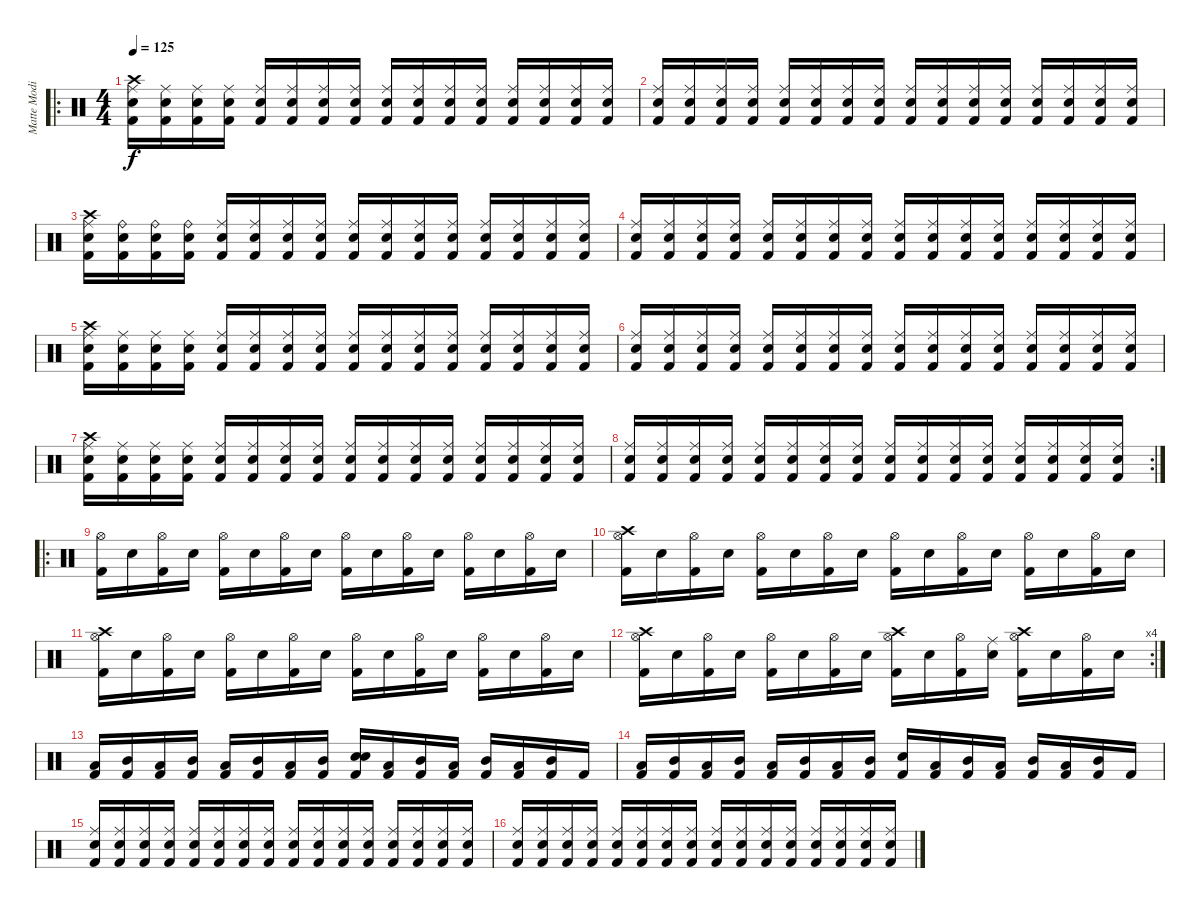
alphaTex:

\track ("Matte Modin" "Matte Modi") {instrument percussion}
\staff {score}
\articulation defaults
\ro
\ts (4 4)
\tempo 125
\clef neutral
\ks c
("Crash high (hit)" "Kick (hit) 2" "Ride (middle)" "Electric Snare (hit)").16{dy f} ("Kick (hit) 2" "Ride (middle)" "Electric Snare (hit)").16 ("Kick (hit) 2" "Ride (middle)" "Electric Snare (hit)").16 ("Kick (hit) 2" "Ride (middle)" "Electric Snare (hit)").16 ("Kick (hit) 2" "Ride (middle)" "Electric Snare (hit)").16 ("Kick (hit) 2" "Ride (middle)" "Electric Snare (hit)").16 ("Kick (hit) 2" "Ride (middle)" "Electric Snare (hit)").16 ("Kick (hit) 2" "Ride (middle)" "Electric Snare (hit)").16 ("Kick (hit) 2" "Ride (middle)" "Electric Snare (hit)").16 ("Kick (hit) 2" "Ride (middle)" "Electric Snare (hit)").16 ("Kick (hit) 2" "Ride (middle)" "Electric Snare (hit)").16 ("Kick (hit) 2" "Ride (middle)" "Electric Snare (hit)").16 ("Kick (hit) 2" "Ride (middle)" "Electric Snare (hit)").16 ("Kick (hit) 2" "Ride (middle)" "Electric Snare (hit)").16 ("Kick (hit) 2" "Ride (middle)" "Electric Snare (hit)").16 ("Kick (hit) 2" "Ride (middle)" "Electric Snare (hit)").16 |
("Kick (hit) 2" "Ride (middle)" "Electric Snare (hit)").16 ("Kick (hit) 2" "Ride (middle)" "Electric Snare (hit)").16 ("Kick (hit) 2" "Ride (middle)" "Electric Snare (hit)").16 ("Kick (hit) 2" "Ride (middle)" "Electric Snare (hit)").16 ("Kick (hit) 2" "Ride (middle)" "Electric Snare (hit)").16 ("Kick (hit) 2" "Ride (middle)" "Electric Snare (hit)").16 ("Kick (hit) 2" "Ride (middle)" "Electric Snare (hit)").16 ("Kick (hit) 2" "Ride (middle)" "Electric Snare (hit)").16 ("Kick (hit) 2" "Ride (middle)" "Electric Snare (hit)").16 ("Kick (hit) 2" "Ride (middle)" "Electric Snare (hit)").16 ("Kick (hit) 2" "Ride (middle)" "Electric Snare (hit)").16 ("Kick (hit) 2" "Ride (middle)" "Electric Snare (hit)").16 ("Kick (hit) 2" "Ride (middle)" "Electric Snare (hit)").16 ("Kick (hit) 2" "Ride (middle)" "Electric Snare (hit)").16 ("Kick (hit) 2" "Ride (middle)" "Electric Snare (hit)").16 ("Kick (hit) 2" "Ride (middle)" "Electric Snare (hit)").16 |
("Crash high (hit)" "Kick (hit) 2" "Ride (middle)" "Electric Snare (hit)").16 ("Kick (hit) 2" "Ride (bell)" "Electric Snare (hit)").16 ("Kick (hit) 2" "Ride (bell)" "Electric Snare (hit)").16 ("Kick (hit) 2" "Ride (bell)" "Electric Snare (hit)").16 ("Kick (hit) 2" "Ride (middle)" "Electric Snare (hit)").16 ("Kick (hit) 2" "Ride (middle)" "Electric Snare (hit)").16 ("Kick (hit) 2" "Ride (middle)" "Electric Snare (hit)").16 ("Kick (hit) 2" "Ride (middle)" "Electric Snare (hit)").16 ("Kick (hit) 2" "Ride (middle)" "Electric Snare (hit)").16 ("Kick (hit) 2" "Ride (middle)" "Electric Snare (hit)").16 ("Kick (hit) 2" "Ride (middle)" "Electric Snare (hit)").16 ("Kick (hit) 2" "Ride (middle)" "Electric Snare (hit)").16 ("Kick (hit) 2" "Ride (middle)" "Electric Snare (hit)").16 ("Kick (hit) 2" "Ride (middle)" "Electric Snare (hit)").16 ("Kick (hit) 2" "Ride (middle)" "Electric Snare (hit)").16 ("Kick (hit) 2" "Ride (middle)" "Electric Snare (hit)").16 |
("Kick (hit) 2" "Ride (middle)" "Electric Snare (hit)").16 ("Kick (hit) 2" "Ride (middle)" "Electric Snare (hit)").16 ("Kick (hit) 2" "Ride (middle)" "Electric Snare (hit)").16 ("Kick (hit) 2" "Ride (middle)" "Electric Snare (hit)").16 ("Kick (hit) 2" "Ride (middle)" "Electric Snare (hit)").16 ("Kick (hit) 2" "Ride (middle)" "Electric Snare (hit)").16 ("Kick (hit) 2" "Ride (middle)" "Electric Snare (hit)").16 ("Kick (hit) 2" "Ride (middle)" "Electric Snare (hit)").16 ("Kick (hit) 2" "Ride (middle)" "Electric Snare (hit)").16 ("Kick (hit) 2" "Ride (middle)" "Electric Snare (hit)").16 ("Kick (hit) 2" "Ride (middle)" "Electric Snare (hit)").16 ("Kick (hit) 2" "Ride (middle)" "Electric Snare (hit)").16 ("Kick (hit) 2" "Ride (middle)" "Electric Snare (hit)").16 ("Kick (hit) 2" "Ride (middle)" "Electric Snare (hit)").16 ("Kick (hit) 2" "Ride (middle)" "Electric Snare (hit)").16 ("Kick (hit) 2" "Ride (middle)" "Electric Snare (hit)").16 |
("Crash high (hit)" "Kick (hit) 2" "Ride (middle)" "Electric Snare (hit)").16 ("Kick (hit) 2" "Ride (middle)" "Electric Snare (hit)").16 ("Kick (hit) 2" "Ride (middle)" "Electric Snare (hit)").16 ("Kick (hit) 2" "Ride (middle)" "Electric Snare (hit)").16 ("Kick (hit) 2" "Ride (middle)" "Electric Snare (hit)").16 ("Kick (hit) 2" "Ride (middle)" "Electric Snare (hit)").16 ("Kick (hit) 2" "Ride (middle)" "Electric Snare (hit)").16 ("Kick (hit) 2" "Ride (middle)" "Electric Snare (hit)").16 ("Kick (hit) 2" "Ride (middle)" "Electric Snare (hit)").16 ("Kick (hit) 2" "Ride (middle)" "Electric Snare (hit)").16 ("Kick (hit) 2" "Ride (middle)" "Electric Snare (hit)").16 ("Kick (hit) 2" "Ride (middle)" "Electric Snare (hit)").16 ("Kick (hit) 2" "Ride (middle)" "Electric Snare (hit)").16 ("Kick (hit) 2" "Ride (middle)" "Electric Snare (hit)").16 ("Kick (hit) 2" "Ride (middle)" "Electric Snare (hit)").16 ("Kick (hit) 2" "Ride (middle)" "Electric Snare (hit)").16 |
("Kick (hit) 2" "Ride (middle)" "Electric Snare (hit)").16 ("Kick (hit) 2" "Ride (middle)" "Electric Snare (hit)").16 ("Kick (hit) 2" "Ride (middle)" "Electric Snare (hit)").16 ("Kick (hit) 2" "Ride (middle)" "Electric Snare (hit)").16 ("Kick (hit) 2" "Ride (middle)" "Electric Snare (hit)").16 ("Kick (hit) 2" "Ride (middle)" "Electric Snare (hit)").16 ("Kick (hit) 2" "Ride (middle)" "Electric Snare (hit)").16 ("Kick (hit) 2" "Ride (middle)" "Electric Snare (hit)").16 ("Kick (hit) 2" "Ride (middle)" "Electric Snare (hit)").16 ("Kick (hit) 2" "Ride (middle)" "Electric Snare (hit)").16 ("Kick (hit) 2" "Ride (middle)" "Electric Snare (hit)").16 ("Kick (hit) 2" "Ride (middle)" "Electric Snare (hit)").16 ("Kick (hit) 2" "Ride (middle)" "Electric Snare (hit)").16 ("Kick (hit) 2" "Ride (middle)" "Electric Snare (hit)").16 ("Kick (hit) 2" "Ride (middle)" "Electric Snare (hit)").16 ("Kick (hit) 2" "Ride (middle)" "Electric Snare (hit)").16 |
("Crash high (hit)" "Kick (hit) 2" "Ride (middle)" "Electric Snare (hit)").16 ("Kick (hit) 2" "Ride (middle)" "Electric Snare (hit)").16 ("Kick (hit) 2" "Ride (middle)" "Electric Snare (hit)").16 ("Kick (hit) 2" "Ride (middle)" "Electric Snare (hit)").16 ("Kick (hit) 2" "Ride (middle)" "Electric Snare (hit)").16 ("Kick (hit) 2" "Ride (middle)" "Electric Snare (hit)").16 ("Kick (hit) 2" "Ride (middle)" "Electric Snare (hit)").16 ("Kick (hit) 2" "Ride (middle)" "Electric Snare (hit)").16 ("Kick (hit) 2" "Ride (middle)" "Electric Snare (hit)").16 ("Kick (hit) 2" "Ride (middle)" "Electric Snare (hit)").16 ("Kick (hit) 2" "Ride (middle)" "Electric Snare (hit)").16 ("Kick (hit) 2" "Ride (middle)" "Electric Snare (hit)").16 ("Kick (hit) 2" "Ride (middle)" "Electric Snare (hit)").16 ("Kick (hit) 2" "Ride (middle)" "Electric Snare (hit)").16 ("Kick (hit) 2" "Ride (middle)" "Electric Snare (hit)").16 ("Kick (hit) 2" "Ride (middle)" "Electric Snare (hit)").16 |
\rc 2
("Kick (hit) 2" "Ride (middle)" "Electric Snare (hit)").16 ("Kick (hit) 2" "Ride (middle)" "Electric Snare (hit)").16 ("Kick (hit) 2" "Ride (middle)" "Electric Snare (hit)").16 ("Kick (hit) 2" "Ride (middle)" "Electric Snare (hit)").16 ("Kick (hit) 2" "Ride (middle)" "Electric Snare (hit)").16 ("Kick (hit) 2" "Ride (middle)" "Electric Snare (hit)").16 ("Kick (hit) 2" "Ride (middle)" "Electric Snare (hit)").16 ("Kick (hit) 2" "Ride (middle)" "Electric Snare (hit)").16 ("Kick (hit) 2" "Ride (middle)" "Electric Snare (hit)").16 ("Kick (hit) 2" "Ride (middle)" "Electric Snare (hit)").16 ("Kick (hit) 2" "Ride (middle)" "Electric Snare (hit)").16 ("Kick (hit) 2" "Ride (middle)" "Electric Snare (hit)").16 ("Kick (hit) 2" "Ride (middle)" "Electric Snare (hit)").16 ("Kick (hit) 2" "Ride (middle)" "Electric Snare (hit)").16 ("Kick (hit) 2" "Ride (middle)" "Electric Snare (hit)").16 ("Kick (hit) 2" "Ride (middle)" "Electric Snare (hit)").16 |
\ro
("Hi-Hat (open)" "Kick (hit) 2").16 "Electric Snare (hit)".16 ("Hi-Hat (open)" "Kick (hit) 2").16 "Electric Snare (hit)".16 ("Hi-Hat (open)" "Kick (hit) 2").16 "Electric Snare (hit)".16 ("Hi-Hat (open)" "Kick (hit) 2").16 "Electric Snare (hit)".16 ("Hi-Hat (open)" "Kick (hit) 2").16 "Electric Snare (hit)".16 ("Hi-Hat (open)" "Kick (hit) 2").16 "Electric Snare (hit)".16 ("Hi-Hat (open)" "Kick (hit) 2").16 "Electric Snare (hit)".16 ("Hi-Hat (open)" "Kick (hit) 2").16 "Electric Snare (hit)".16 |
("Crash high (hit)" "Hi-Hat (open)" "Kick (hit) 2").16 "Electric Snare (hit)".16 ("Hi-Hat (open)" "Kick (hit) 2").16 "Electric Snare (hit)".16 ("Hi-Hat (open)" "Kick (hit) 2").16 "Electric Snare (hit)".16 ("Hi-Hat (open)" "Kick (hit) 2").16 "Electric Snare (hit)".16 ("Hi-Hat (open)" "Kick (hit) 2").16 "Electric Snare (hit)".16 ("Hi-Hat (open)" "Kick (hit) 2").16 "Electric Snare (hit)".16 ("Hi-Hat (open)" "Kick (hit) 2").16 "Electric Snare (hit)".16 ("Hi-Hat (open)" "Kick (hit) 2").16 "Electric Snare (hit)".16 |
("Crash high (hit)" "Hi-Hat (open)" "Kick (hit) 2").16 "Electric Snare (hit)".16 ("Hi-Hat (open)" "Kick (hit) 2").16 "Electric Snare (hit)".16 ("Hi-Hat (open)" "Kick (hit) 2").16 "Electric Snare (hit)".16 ("Hi-Hat (open)" "Kick (hit) 2").16 "Electric Snare (hit)".16 ("Hi-Hat (open)" "Kick (hit) 2").16 "Electric Snare (hit)".16 ("Hi-Hat (open)" "Kick (hit) 2").16 "Electric Snare (hit)".16 ("Hi-Hat (open)" "Kick (hit) 2").16 "Electric Snare (hit)".16 ("Hi-Hat (open)" "Kick (hit) 2").16 "Electric Snare (hit)".16 |
\rc 4
("Crash high (hit)" "Hi-Hat (open)" "Kick (hit) 2").16 "Electric Snare (hit)".16 ("Hi-Hat (open)" "Kick (hit) 2").16 "Electric Snare (hit)".16 ("Hi-Hat (open)" "Kick (hit) 2").16 "Electric Snare (hit)".16 ("Hi-Hat (open)" "Kick (hit) 2").16 "Electric Snare (hit)".16 ("Crash high (hit)" "Hi-Hat (open)" "Kick (hit) 2").16 "Electric Snare (hit)".16 ("Hi-Hat (open)" "Kick (hit) 2").16 ("Ride (middle)" "Electric Snare (hit)").16 ("Crash high (hit)" "Hi-Hat (open)" "Kick (hit) 2").16 "Electric Snare (hit)".16 ("Hi-Hat (open)" "Kick (hit) 2").16 "Electric Snare (hit)".16 |
("Low Tom (hit)" "Kick (hit) 2").16 ("Mid Tom (hit)" "Kick (hit) 2").16 ("Low Tom (hit)" "Kick (hit) 2").16 ("Mid Tom (hit)" "Kick (hit) 2").16 ("Low Tom (hit)" "Kick (hit) 2").16 ("Mid Tom (hit)" "Kick (hit) 2").16 ("Low Tom (hit)" "Kick (hit) 2").16 ("Mid Tom (hit)" "Kick (hit) 2").16 ("Electric Snare (hit)" "Electric Snare (hit)" "Kick (hit) 2").16 ("Low Tom (hit)" "Kick (hit) 2").16 ("Mid Tom (hit)" "Kick (hit) 2").16 ("Low Tom (hit)" "Kick (hit) 2").16 ("Mid Tom (hit)" "Kick (hit) 2").16 ("Low Tom (hit)" "Kick (hit) 2").16 ("Mid Tom (hit)" "Kick (hit) 2").16 "Kick (hit) 2".16 |
("Low Tom (hit)" "Kick (hit) 2").16 ("Mid Tom (hit)" "Kick (hit) 2").16 ("Low Tom (hit)" "Kick (hit) 2").16 ("Mid Tom (hit)" "Kick (hit) 2").16 ("Low Tom (hit)" "Kick (hit) 2").16 ("Mid Tom (hit)" "Kick (hit) 2").16 ("Low Tom (hit)" "Kick (hit) 2").16 ("Mid Tom (hit)" "Kick (hit) 2").16 ("Electric Snare (hit)" "Kick (hit) 2").16 ("Low Tom (hit)" "Kick (hit) 2").16 ("Mid Tom (hit)" "Kick (hit) 2").16 ("Low Tom (hit)" "Kick (hit) 2").16 ("Mid Tom (hit)" "Kick (hit) 2").16 ("Low Tom (hit)" "Kick (hit) 2").16 ("Mid Tom (hit)" "Kick (hit) 2").16 "Kick (hit) 2".16 |
("Kick (hit) 2" "Ride (middle)" "Electric Snare (hit)").16 ("Kick (hit) 2" "Ride (middle)" "Electric Snare (hit)").16 ("Kick (hit) 2" "Ride (middle)" "Electric Snare (hit)").16 ("Kick (hit) 2" "Ride (middle)" "Electric Snare (hit)").16 ("Kick (hit) 2" "Ride (middle)" "Electric Snare (hit)").16 ("Kick (hit) 2" "Ride (middle)" "Electric Snare (hit)").16 ("Kick (hit) 2" "Ride (middle)" "Electric Snare (hit)").16 ("Kick (hit) 2" "Ride (middle)" "Electric Snare (hit)").16 ("Kick (hit) 2" "Ride (middle)" "Electric Snare (hit)").16 ("Kick (hit) 2" "Ride (middle)" "Electric Snare (hit)").16 ("Kick (hit) 2" "Ride (middle)" "Electric Snare (hit)").16 ("Kick (hit) 2" "Ride (middle)" "Electric Snare (hit)").16 ("Kick (hit) 2" "Ride (middle)" "Electric Snare (hit)").16 ("Kick (hit) 2" "Ride (middle)" "Electric Snare (hit)").16 ("Kick (hit) 2" "Ride (middle)" "Electric Snare (hit)").16 ("Kick (hit) 2" "Ride (middle)" "Electric Snare (hit)").16 |
("Kick (hit) 2" "Ride (middle)" "Electric Snare (hit)").16 ("Kick (hit) 2" "Ride (middle)" "Electric Snare (hit)").16 ("Kick (hit) 2" "Ride (middle)" "Electric Snare (hit)").16 ("Kick (hit) 2" "Ride (middle)" "Electric Snare (hit)").16 ("Kick (hit) 2" "Ride (middle)" "Electric Snare (hit)").16 ("Kick (hit) 2" "Ride (middle)" "Electric Snare (hit)").16 ("Kick (hit) 2" "Ride (middle)" "Electric Snare (hit)").16 ("Kick (hit) 2" "Ride (middle)" "Electric Snare (hit)").16 ("Kick (hit) 2" "Ride (middle)" "Electric Snare (hit)").16 ("Kick (hit) 2" "Ride (middle)" "Electric Snare (hit)").16 ("Kick (hit) 2" "Ride (middle)" "Electric Snare (hit)").16 ("Kick (hit) 2" "Ride (middle)" "Electric Snare (hit)").16 ("Kick (hit) 2" "Ride (middle)" "Electric Snare (hit)").16 ("Kick (hit) 2" "Ride (middle)" "Electric Snare (hit)").16 ("Kick (hit) 2" "Ride (middle)" "Electric Snare (hit)").16 ("Kick (hit) 2" "Ride (middle)" "Electric Snare (hit)").16
